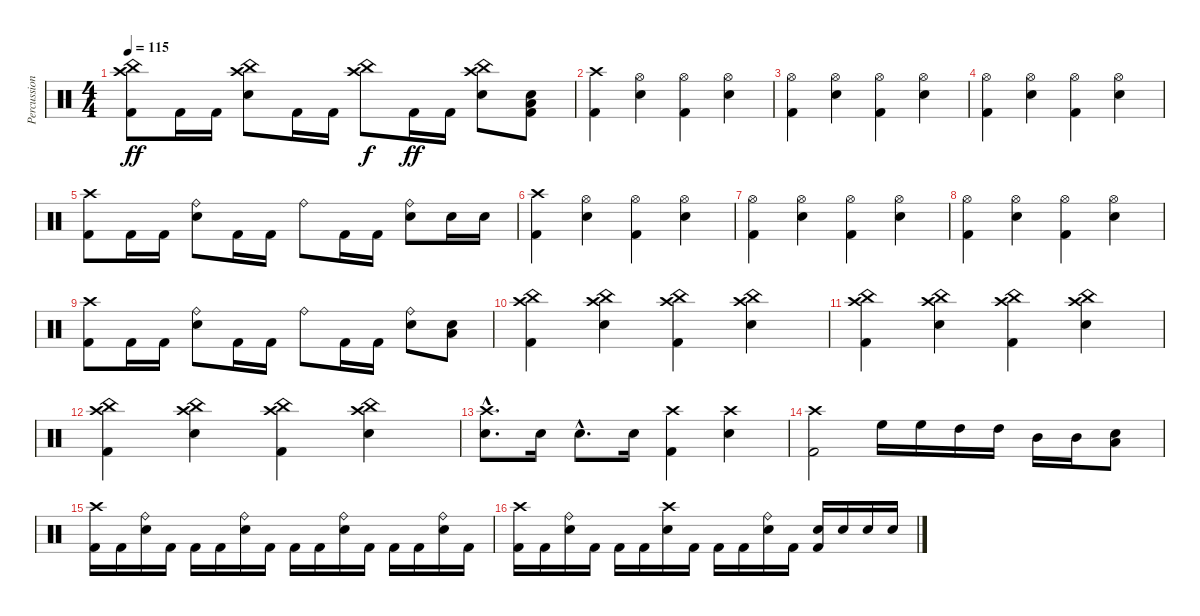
\track ("Percussion" "Percussion") {instrument percussion}
\staff {score}
\articulation defaults
\ts (4 4)
\tempo 115
\clef neutral
\ks c
("Kick (hit) 2" "Crash high (hit)" "China (hit)").8{dy ff} "Kick (hit) 2".16 "Kick (hit) 2".16 ("Electric Snare (hit)" "Crash high (hit)" "China (hit)").8 "Kick (hit) 2".16 "Kick (hit) 2".16 ("Crash high (hit)" "China (hit)").8{dy f} "Kick (hit) 2".16{dy ff} "Kick (hit) 2".16 ("Electric Snare (hit)" "Crash high (hit)" "China (hit)").8 ("Electric Snare (hit)" "Low Tom (hit)" "Kick (hit) 2").8 |
("Kick (hit) 2" "Crash high (hit)").4 ("Electric Snare (hit)" "Hi-Hat (open)").4 ("Kick (hit) 2" "Hi-Hat (open)").4 ("Electric Snare (hit)" "Hi-Hat (open)").4 |
("Kick (hit) 2" "Hi-Hat (open)").4 ("Electric Snare (hit)" "Hi-Hat (open)").4 ("Kick (hit) 2" "Hi-Hat (open)").4 ("Electric Snare (hit)" "Hi-Hat (open)").4 |
("Kick (hit) 2" "Hi-Hat (open)").4 ("Electric Snare (hit)" "Hi-Hat (open)").4 ("Kick (hit) 2" "Hi-Hat (open)").4 ("Electric Snare (hit)" "Hi-Hat (open)").4 |
("Kick (hit) 2" "Crash high (hit)").8 "Kick (hit) 2".16 "Kick (hit) 2".16 ("Electric Snare (hit)" "Ride (bell)").8 "Kick (hit) 2".16 "Kick (hit) 2".16 "Ride (bell)".8 "Kick (hit) 2".16 "Kick (hit) 2".16 ("Electric Snare (hit)" "Ride (bell)").8 "Electric Snare (hit)".16 "Electric Snare (hit)".16 |
("Kick (hit) 2" "Crash high (hit)").4 ("Electric Snare (hit)" "Hi-Hat (open)").4 ("Kick (hit) 2" "Hi-Hat (open)").4 ("Electric Snare (hit)" "Hi-Hat (open)").4 |
("Kick (hit) 2" "Hi-Hat (open)").4 ("Electric Snare (hit)" "Hi-Hat (open)").4 ("Kick (hit) 2" "Hi-Hat (open)").4 ("Electric Snare (hit)" "Hi-Hat (open)").4 |
("Kick (hit) 2" "Hi-Hat (open)").4 ("Electric Snare (hit)" "Hi-Hat (open)").4 ("Kick (hit) 2" "Hi-Hat (open)").4 ("Electric Snare (hit)" "Hi-Hat (open)").4 |
("Kick (hit) 2" "Crash high (hit)").8 "Kick (hit) 2".16 "Kick (hit) 2".16 ("Electric Snare (hit)" "Ride (bell)").8 "Kick (hit) 2".16 "Kick (hit) 2".16 "Ride (bell)".8 "Kick (hit) 2".16 "Kick (hit) 2".16 ("Electric Snare (hit)" "Ride (bell)").8 ("Electric Snare (hit)" "Low Tom (hit)").8 |
("Kick (hit) 2" "Crash high (hit)" "China (hit)").4 ("Electric Snare (hit)" "Crash high (hit)" "China (hit)").4 ("Kick (hit) 2" "Crash high (hit)" "China (hit)").4 ("Electric Snare (hit)" "Crash high (hit)" "China (hit)").4 |
("Kick (hit) 2" "Crash high (hit)" "China (hit)").4 ("Electric Snare (hit)" "Crash high (hit)" "China (hit)").4 ("Kick (hit) 2" "Crash high (hit)" "China (hit)").4 ("Electric Snare (hit)" "Crash high (hit)" "China (hit)").4 |
("Kick (hit) 2" "Crash high (hit)" "China (hit)").4 ("Electric Snare (hit)" "Crash high (hit)" "China (hit)").4 ("Kick (hit) 2" "Crash high (hit)" "China (hit)").4 ("Electric Snare (hit)" "Crash high (hit)" "China (hit)").4 |
("Electric Snare (hit)"{hac} "Crash high (hit)"{hac}).8{d} "Electric Snare (hit)".16 "Electric Snare (hit)"{hac}.8{d} "Electric Snare (hit)".16 ("Kick (hit) 2" "Crash high (hit)").4 ("Electric Snare (hit)" "Crash high (hit)").4 |
("Kick (hit) 2" "Crash high (hit)").2 "High Floor Tom (hit)".16 "High Floor Tom (hit)".16 "High Tom (hit)".16 "High Tom (hit)".16 "Mid Tom (hit)".16 "Mid Tom (hit)".16 ("Electric Snare (hit)" "Low Tom (hit)").8 |
("Kick (hit) 2" "Crash high (hit)").16 "Kick (hit) 2".16 ("Electric Snare (hit)" "Ride (bell)").16 "Kick (hit) 2".16 "Kick (hit) 2".16 "Kick (hit) 2".16 ("Electric Snare (hit)" "Ride (bell)").16 "Kick (hit) 2".16 "Kick (hit) 2".16 "Kick (hit) 2".16 ("Electric Snare (hit)" "Ride (bell)").16 "Kick (hit) 2".16 "Kick (hit) 2".16 "Kick (hit) 2".16 ("Electric Snare (hit)" "Ride (bell)").16 "Kick (hit) 2".16 |
("Kick (hit) 2" "Crash high (hit)").16 "Kick (hit) 2".16 ("Electric Snare (hit)" "Ride (bell)").16 "Kick (hit) 2".16 "Kick (hit) 2".16 "Kick (hit) 2".16 ("Electric Snare (hit)" "Crash high (hit)").16 "Kick (hit) 2".16 "Kick (hit) 2".16 "Kick (hit) 2".16 ("Electric Snare (hit)" "Ride (bell)").16 "Kick (hit) 2".16 ("Electric Snare (hit)" "Kick (hit) 2").16 "Electric Snare (hit)".16 "Electric Snare (hit)".16 "Electric Snare (hit)".16
